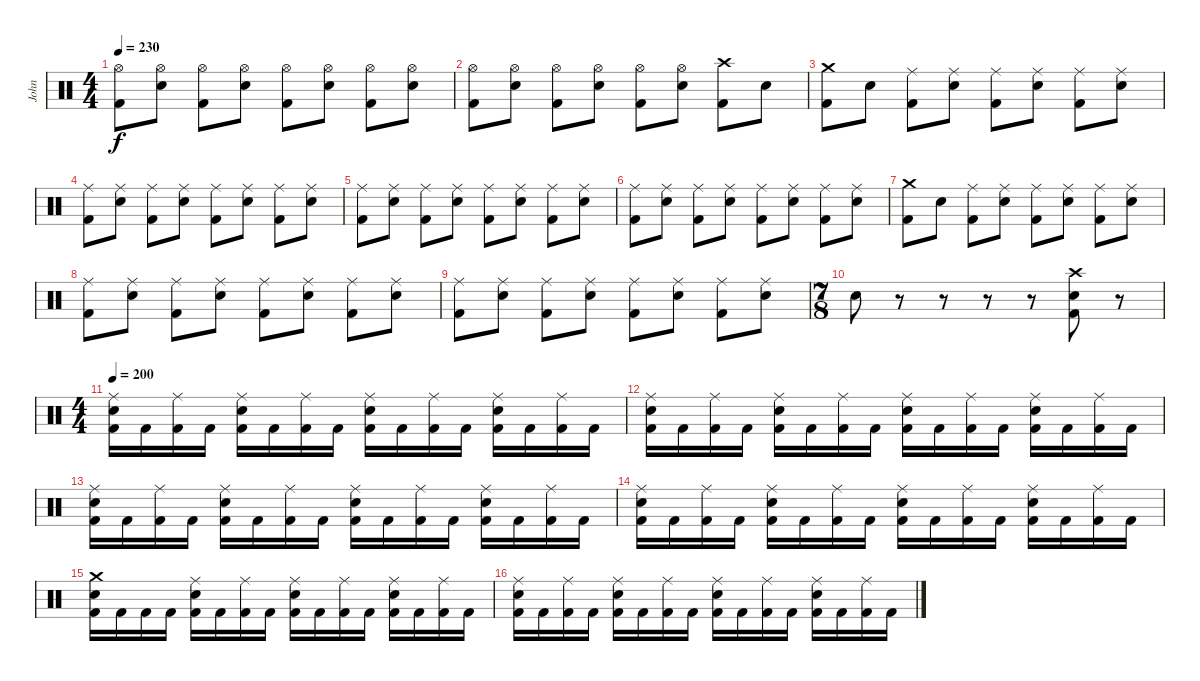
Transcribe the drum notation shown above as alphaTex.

\track ("John" "John") {instrument percussion}
\staff {score}
\articulation defaults
\ts (4 4)
\tempo 230
\clef neutral
\ks c
("Hi-Hat (open)" "Kick (hit) 2").8{dy f} ("Hi-Hat (open)" "Electric Snare (hit)").8 ("Hi-Hat (open)" "Kick (hit) 2").8 ("Hi-Hat (open)" "Electric Snare (hit)").8 ("Hi-Hat (open)" "Kick (hit) 2").8 ("Hi-Hat (open)" "Electric Snare (hit)").8 ("Hi-Hat (open)" "Kick (hit) 2").8 ("Hi-Hat (open)" "Electric Snare (hit)").8 |
("Hi-Hat (open)" "Kick (hit) 2").8 ("Hi-Hat (open)" "Electric Snare (hit)").8 ("Hi-Hat (open)" "Kick (hit) 2").8 ("Hi-Hat (open)" "Electric Snare (hit)").8 ("Hi-Hat (open)" "Kick (hit) 2").8 ("Hi-Hat (open)" "Electric Snare (hit)").8 ("Crash high (hit)" "Kick (hit) 2").8 "Electric Snare (hit)".8 |
("Crash medium (hit)" "Kick (hit) 2").8 "Electric Snare (hit)".8 ("Ride (middle)" "Kick (hit) 2").8 ("Ride (middle)" "Electric Snare (hit)").8 ("Ride (middle)" "Kick (hit) 2").8 ("Ride (middle)" "Electric Snare (hit)").8 ("Ride (middle)" "Kick (hit) 2").8 ("Ride (middle)" "Electric Snare (hit)").8 |
("Ride (middle)" "Kick (hit) 2").8 ("Ride (middle)" "Electric Snare (hit)").8 ("Ride (middle)" "Kick (hit) 2").8 ("Ride (middle)" "Electric Snare (hit)").8 ("Ride (middle)" "Kick (hit) 2").8 ("Ride (middle)" "Electric Snare (hit)").8 ("Ride (middle)" "Kick (hit) 2").8 ("Ride (middle)" "Electric Snare (hit)").8 |
("Ride (middle)" "Kick (hit) 2").8 ("Ride (middle)" "Electric Snare (hit)").8 ("Ride (middle)" "Kick (hit) 2").8 ("Ride (middle)" "Electric Snare (hit)").8 ("Ride (middle)" "Kick (hit) 2").8 ("Ride (middle)" "Electric Snare (hit)").8 ("Ride (middle)" "Kick (hit) 2").8 ("Ride (middle)" "Electric Snare (hit)").8 |
("Ride (middle)" "Kick (hit) 2").8 ("Ride (middle)" "Electric Snare (hit)").8 ("Ride (middle)" "Kick (hit) 2").8 ("Ride (middle)" "Electric Snare (hit)").8 ("Ride (middle)" "Kick (hit) 2").8 ("Ride (middle)" "Electric Snare (hit)").8 ("Ride (middle)" "Kick (hit) 2").8 ("Ride (middle)" "Electric Snare (hit)").8 |
("Crash medium (hit)" "Kick (hit) 2").8 "Electric Snare (hit)".8 ("Ride (middle)" "Kick (hit) 2").8 ("Ride (middle)" "Electric Snare (hit)").8 ("Ride (middle)" "Kick (hit) 2").8 ("Ride (middle)" "Electric Snare (hit)").8 ("Ride (middle)" "Kick (hit) 2").8 ("Ride (middle)" "Electric Snare (hit)").8 |
("Ride (middle)" "Kick (hit) 2").8 ("Ride (middle)" "Electric Snare (hit)").8 ("Ride (middle)" "Kick (hit) 2").8 ("Ride (middle)" "Electric Snare (hit)").8 ("Ride (middle)" "Kick (hit) 2").8 ("Ride (middle)" "Electric Snare (hit)").8 ("Ride (middle)" "Kick (hit) 2").8 ("Ride (middle)" "Electric Snare (hit)").8 |
("Ride (middle)" "Kick (hit) 2").8 ("Ride (middle)" "Electric Snare (hit)").8 ("Ride (middle)" "Kick (hit) 2").8 ("Ride (middle)" "Electric Snare (hit)").8 ("Ride (middle)" "Kick (hit) 2").8 ("Ride (middle)" "Electric Snare (hit)").8 ("Ride (middle)" "Kick (hit) 2").8 ("Ride (middle)" "Electric Snare (hit)").8 |
\ts (7 8)
"Electric Snare (hit)".8 r.8 r.8 r.8 r.8 ("Crash high (hit)" "Electric Snare (hit)" "Kick (hit) 2").8 r.8 |
\ts (4 4)
\tempo 200
("Ride (middle)" "Electric Snare (hit)" "Kick (hit) 2").16 "Kick (hit) 2".16 ("Ride (middle)" "Kick (hit) 2").16 "Kick (hit) 2".16 ("Ride (middle)" "Electric Snare (hit)" "Kick (hit) 2").16 "Kick (hit) 2".16 ("Ride (middle)" "Kick (hit) 2").16 "Kick (hit) 2".16 ("Ride (middle)" "Electric Snare (hit)" "Kick (hit) 2").16 "Kick (hit) 2".16 ("Ride (middle)" "Kick (hit) 2").16 "Kick (hit) 2".16 ("Ride (middle)" "Electric Snare (hit)" "Kick (hit) 2").16 "Kick (hit) 2".16 ("Ride (middle)" "Kick (hit) 2").16 "Kick (hit) 2".16 |
("Ride (middle)" "Electric Snare (hit)" "Kick (hit) 2").16 "Kick (hit) 2".16 ("Ride (middle)" "Kick (hit) 2").16 "Kick (hit) 2".16 ("Ride (middle)" "Electric Snare (hit)" "Kick (hit) 2").16 "Kick (hit) 2".16 ("Ride (middle)" "Kick (hit) 2").16 "Kick (hit) 2".16 ("Ride (middle)" "Electric Snare (hit)" "Kick (hit) 2").16 "Kick (hit) 2".16 ("Ride (middle)" "Kick (hit) 2").16 "Kick (hit) 2".16 ("Ride (middle)" "Electric Snare (hit)" "Kick (hit) 2").16 "Kick (hit) 2".16 ("Ride (middle)" "Kick (hit) 2").16 "Kick (hit) 2".16 |
("Ride (middle)" "Electric Snare (hit)" "Kick (hit) 2").16 "Kick (hit) 2".16 ("Ride (middle)" "Kick (hit) 2").16 "Kick (hit) 2".16 ("Ride (middle)" "Electric Snare (hit)" "Kick (hit) 2").16 "Kick (hit) 2".16 ("Ride (middle)" "Kick (hit) 2").16 "Kick (hit) 2".16 ("Ride (middle)" "Electric Snare (hit)" "Kick (hit) 2").16 "Kick (hit) 2".16 ("Ride (middle)" "Kick (hit) 2").16 "Kick (hit) 2".16 ("Ride (middle)" "Electric Snare (hit)" "Kick (hit) 2").16 "Kick (hit) 2".16 ("Ride (middle)" "Kick (hit) 2").16 "Kick (hit) 2".16 |
("Ride (middle)" "Electric Snare (hit)" "Kick (hit) 2").16 "Kick (hit) 2".16 ("Ride (middle)" "Kick (hit) 2").16 "Kick (hit) 2".16 ("Ride (middle)" "Electric Snare (hit)" "Kick (hit) 2").16 "Kick (hit) 2".16 ("Ride (middle)" "Kick (hit) 2").16 "Kick (hit) 2".16 ("Ride (middle)" "Electric Snare (hit)" "Kick (hit) 2").16 "Kick (hit) 2".16 ("Ride (middle)" "Kick (hit) 2").16 "Kick (hit) 2".16 ("Ride (middle)" "Electric Snare (hit)" "Kick (hit) 2").16 "Kick (hit) 2".16 ("Ride (middle)" "Kick (hit) 2").16 "Kick (hit) 2".16 |
("Crash medium (hit)" "Electric Snare (hit)" "Kick (hit) 2").16 "Kick (hit) 2".16 "Kick (hit) 2".16 "Kick (hit) 2".16 ("Ride (middle)" "Electric Snare (hit)" "Kick (hit) 2").16 "Kick (hit) 2".16 ("Ride (middle)" "Kick (hit) 2").16 "Kick (hit) 2".16 ("Ride (middle)" "Electric Snare (hit)" "Kick (hit) 2").16 "Kick (hit) 2".16 ("Ride (middle)" "Kick (hit) 2").16 "Kick (hit) 2".16 ("Ride (middle)" "Electric Snare (hit)" "Kick (hit) 2").16 "Kick (hit) 2".16 ("Ride (middle)" "Kick (hit) 2").16 "Kick (hit) 2".16 |
("Ride (middle)" "Electric Snare (hit)" "Kick (hit) 2").16 "Kick (hit) 2".16 ("Ride (middle)" "Kick (hit) 2").16 "Kick (hit) 2".16 ("Ride (middle)" "Electric Snare (hit)" "Kick (hit) 2").16 "Kick (hit) 2".16 ("Ride (middle)" "Kick (hit) 2").16 "Kick (hit) 2".16 ("Ride (middle)" "Electric Snare (hit)" "Kick (hit) 2").16 "Kick (hit) 2".16 ("Ride (middle)" "Kick (hit) 2").16 "Kick (hit) 2".16 ("Ride (middle)" "Electric Snare (hit)" "Kick (hit) 2").16 "Kick (hit) 2".16 ("Ride (middle)" "Kick (hit) 2").16 "Kick (hit) 2".16
